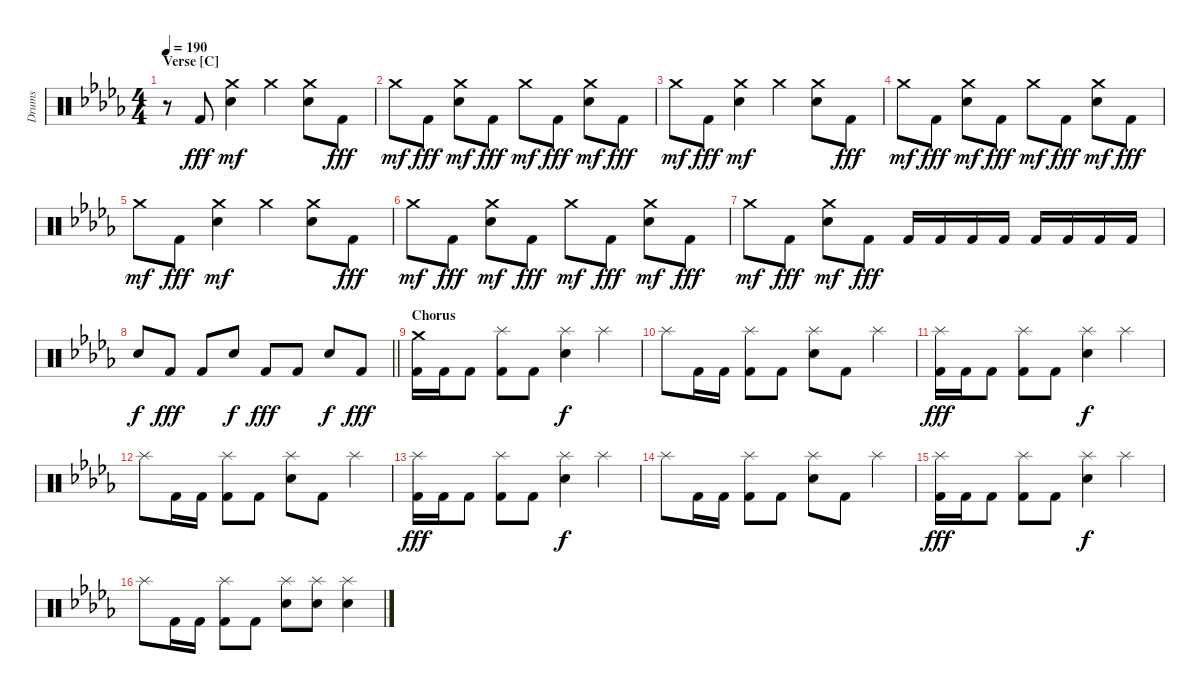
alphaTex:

\track ("Drums" "Drums") {instrument percussion}
\staff {score}
\articulation defaults
\ts (4 4)
\section ("" "Verse [C]")
\tempo 190
\clef neutral
\ks db
r.8{dy fff} "Kick (hit) 2".8 ("Crash medium (hit)" "Electric Snare (hit)").4{dy mf} "Crash medium (hit)".4 ("Crash medium (hit)" "Electric Snare (hit)").8 "Kick (hit) 2".8{dy fff} |
"Crash medium (hit)".8{dy mf} "Kick (hit) 2".8{dy fff} ("Crash medium (hit)" "Electric Snare (hit)").8{dy mf} "Kick (hit) 2".8{dy fff} "Crash medium (hit)".8{dy mf} "Kick (hit) 2".8{dy fff} ("Crash medium (hit)" "Electric Snare (hit)").8{dy mf} "Kick (hit) 2".8{dy fff} |
"Crash medium (hit)".8{dy mf} "Kick (hit) 2".8{dy fff} ("Crash medium (hit)" "Electric Snare (hit)").4{dy mf} "Crash medium (hit)".4 ("Crash medium (hit)" "Electric Snare (hit)").8 "Kick (hit) 2".8{dy fff} |
"Crash medium (hit)".8{dy mf} "Kick (hit) 2".8{dy fff} ("Crash medium (hit)" "Electric Snare (hit)").8{dy mf} "Kick (hit) 2".8{dy fff} "Crash medium (hit)".8{dy mf} "Kick (hit) 2".8{dy fff} ("Crash medium (hit)" "Electric Snare (hit)").8{dy mf} "Kick (hit) 2".8{dy fff} |
"Crash medium (hit)".8{dy mf} "Kick (hit) 2".8{dy fff} ("Crash medium (hit)" "Electric Snare (hit)").4{dy mf} "Crash medium (hit)".4 ("Crash medium (hit)" "Electric Snare (hit)").8 "Kick (hit) 2".8{dy fff} |
"Crash medium (hit)".8{dy mf} "Kick (hit) 2".8{dy fff} ("Crash medium (hit)" "Electric Snare (hit)").8{dy mf} "Kick (hit) 2".8{dy fff} "Crash medium (hit)".8{dy mf} "Kick (hit) 2".8{dy fff} ("Crash medium (hit)" "Electric Snare (hit)").8{dy mf} "Kick (hit) 2".8{dy fff} |
"Crash medium (hit)".8{dy mf} "Kick (hit) 2".8{dy fff} ("Crash medium (hit)" "Electric Snare (hit)").8{dy mf} "Kick (hit) 2".8{dy fff} "Kick (hit) 2".16 "Kick (hit) 2".16 "Kick (hit) 2".16 "Kick (hit) 2".16 "Kick (hit) 2".16 "Kick (hit) 2".16 "Kick (hit) 2".16 "Kick (hit) 2".16 |
\barLineRight lightlight "Electric Snare (hit)".8{dy f} "Kick (hit) 2".8{dy fff} "Kick (hit) 2".8 "Electric Snare (hit)".8{dy f} "Kick (hit) 2".8{dy fff} "Kick (hit) 2".8 "Electric Snare (hit)".8{dy f} "Kick (hit) 2".8{dy fff}
|
\section ("" "Chorus")
("Crash medium (hit)" "Kick (hit) 2").16 "Kick (hit) 2".16 "Kick (hit) 2".8 ("Splash (hit)" "Kick (hit) 2").8 "Kick (hit) 2".8 ("Splash (hit)" "Electric Snare (hit)").4{dy f} "Splash (hit)".4 |
"Splash (hit)".8 "Kick (hit) 2".16 "Kick (hit) 2".16 ("Splash (hit)" "Kick (hit) 2").8 "Kick (hit) 2".8 ("Splash (hit)" "Electric Snare (hit)").8 "Kick (hit) 2".8 "Splash (hit)".4 |
("Splash (hit)" "Kick (hit) 2").16{dy fff} "Kick (hit) 2".16 "Kick (hit) 2".8 ("Splash (hit)" "Kick (hit) 2").8 "Kick (hit) 2".8 ("Splash (hit)" "Electric Snare (hit)").4{dy f} "Splash (hit)".4 |
"Splash (hit)".8 "Kick (hit) 2".16 "Kick (hit) 2".16 ("Splash (hit)" "Kick (hit) 2").8 "Kick (hit) 2".8 ("Splash (hit)" "Electric Snare (hit)").8 "Kick (hit) 2".8 "Splash (hit)".4 |
("Splash (hit)" "Kick (hit) 2").16{dy fff} "Kick (hit) 2".16 "Kick (hit) 2".8 ("Splash (hit)" "Kick (hit) 2").8 "Kick (hit) 2".8 ("Splash (hit)" "Electric Snare (hit)").4{dy f} "Splash (hit)".4 |
"Splash (hit)".8 "Kick (hit) 2".16 "Kick (hit) 2".16 ("Splash (hit)" "Kick (hit) 2").8 "Kick (hit) 2".8 ("Splash (hit)" "Electric Snare (hit)").8 "Kick (hit) 2".8 "Splash (hit)".4 |
("Splash (hit)" "Kick (hit) 2").16{dy fff} "Kick (hit) 2".16 "Kick (hit) 2".8 ("Splash (hit)" "Kick (hit) 2").8 "Kick (hit) 2".8 ("Splash (hit)" "Electric Snare (hit)").4{dy f} "Splash (hit)".4 |
"Splash (hit)".8 "Kick (hit) 2".16 "Kick (hit) 2".16 ("Splash (hit)" "Kick (hit) 2").8 "Kick (hit) 2".8 ("Splash (hit)" "Electric Snare (hit)").8 ("Splash (hit)" "Electric Snare (hit)").8 ("Splash (hit)" "Electric Snare (hit)").4
